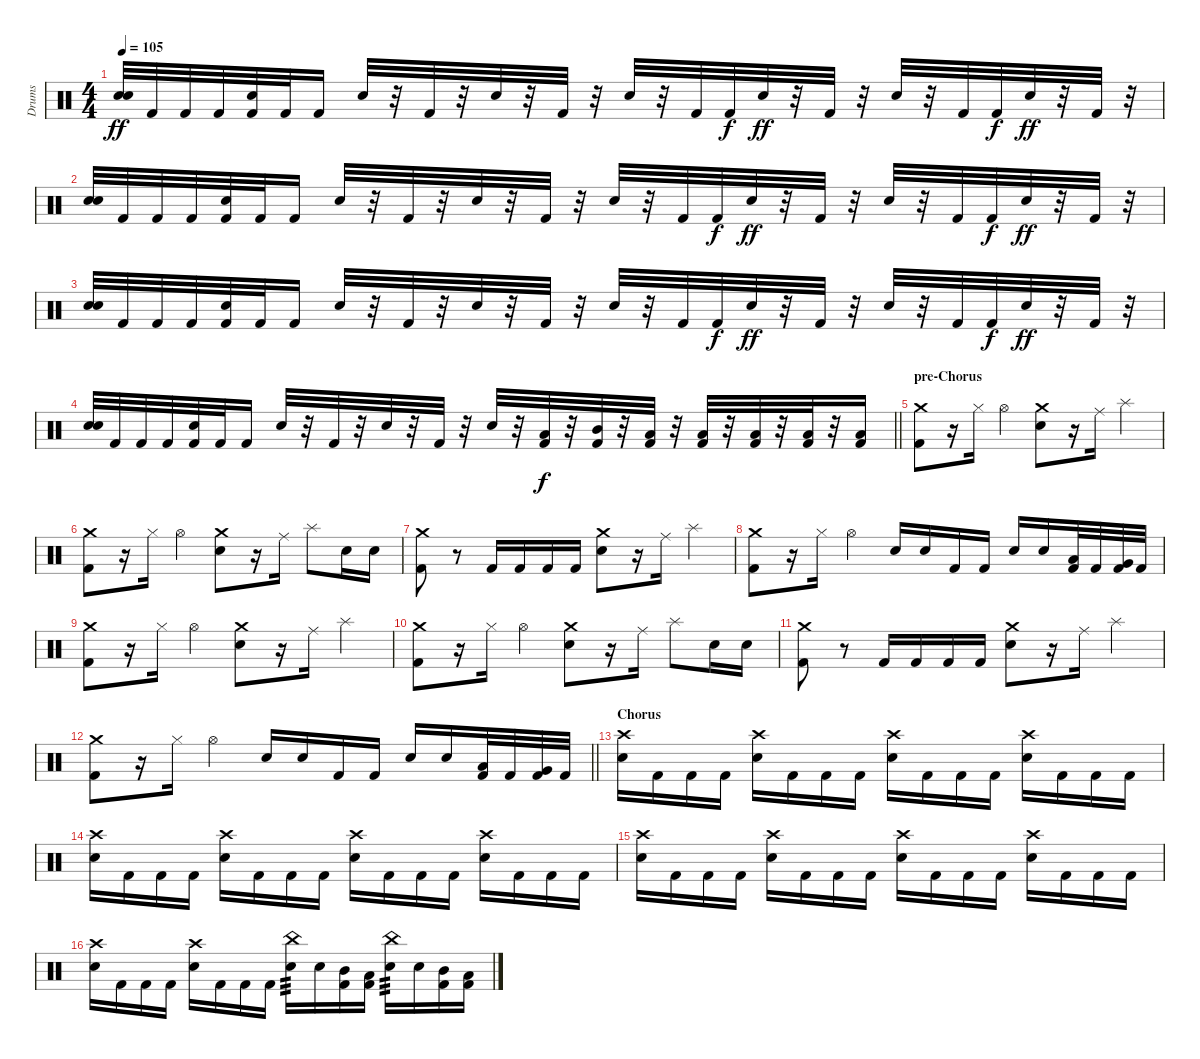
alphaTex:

\track ("Drums" "Drums") {instrument percussion}
\staff {score}
\articulation defaults
\ts (4 4)
\tempo 105
\clef neutral
\ks c
("Snare (hit) 2" "Snare (hit) 2").32{dy ff} "Kick (hit) 2".32 "Kick (hit) 2".32 "Kick (hit) 2".32 ("Snare (hit) 2" "Kick (hit) 2").32 "Kick (hit) 2".32 "Kick (hit) 2".16 "Snare (hit) 2".32 r.32 "Kick (hit) 2".32 r.32 "Snare (hit) 2".32 r.32 "Kick (hit) 2".32 r.32 "Snare (hit) 2".32 r.32 "Kick (hit) 2".32 "Kick (hit) 2".32{dy f} "Snare (hit) 2".32{dy ff} r.32 "Kick (hit) 2".32 r.32 "Snare (hit) 2".32 r.32 "Kick (hit) 2".32 "Kick (hit) 2".32{dy f} "Snare (hit) 2".32{dy ff} r.32 "Kick (hit) 2".32 r.32 |
("Snare (hit) 2" "Snare (hit) 2").32 "Kick (hit) 2".32 "Kick (hit) 2".32 "Kick (hit) 2".32 ("Snare (hit) 2" "Kick (hit) 2").32 "Kick (hit) 2".32 "Kick (hit) 2".16 "Snare (hit) 2".32 r.32 "Kick (hit) 2".32 r.32 "Snare (hit) 2".32 r.32 "Kick (hit) 2".32 r.32 "Snare (hit) 2".32 r.32 "Kick (hit) 2".32 "Kick (hit) 2".32{dy f} "Snare (hit) 2".32{dy ff} r.32 "Kick (hit) 2".32 r.32 "Snare (hit) 2".32 r.32 "Kick (hit) 2".32 "Kick (hit) 2".32{dy f} "Snare (hit) 2".32{dy ff} r.32 "Kick (hit) 2".32 r.32 |
("Snare (hit) 2" "Snare (hit) 2").32 "Kick (hit) 2".32 "Kick (hit) 2".32 "Kick (hit) 2".32 ("Snare (hit) 2" "Kick (hit) 2").32 "Kick (hit) 2".32 "Kick (hit) 2".16 "Snare (hit) 2".32 r.32 "Kick (hit) 2".32 r.32 "Snare (hit) 2".32 r.32 "Kick (hit) 2".32 r.32 "Snare (hit) 2".32 r.32 "Kick (hit) 2".32 "Kick (hit) 2".32{dy f} "Snare (hit) 2".32{dy ff} r.32 "Kick (hit) 2".32 r.32 "Snare (hit) 2".32 r.32 "Kick (hit) 2".32 "Kick (hit) 2".32{dy f} "Snare (hit) 2".32{dy ff} r.32 "Kick (hit) 2".32 r.32 |
\barLineRight lightlight
("Snare (hit) 2" "Snare (hit) 2").32 "Kick (hit) 2".32 "Kick (hit) 2".32 "Kick (hit) 2".32 ("Snare (hit) 2" "Kick (hit) 2").32 "Kick (hit) 2".32 "Kick (hit) 2".16 "Snare (hit) 2".32 r.32 "Kick (hit) 2".32 r.32 "Snare (hit) 2".32 r.32 "Kick (hit) 2".32 r.32 "Snare (hit) 2".32 r.32 ("Low Tom (hit)" "Kick (hit) 2").32{dy f} r.32 ("Mid Tom (hit)" "Kick (hit) 2").32 r.32 ("Low Tom (hit)" "Kick (hit) 2").32 r.32 ("Low Tom (hit)" "Kick (hit) 2").32 r.32 ("Low Tom (hit)" "Kick (hit) 2").32 r.32 ("Low Floor Tom (hit)" "Kick (hit) 2").32 r.32 ("Low Floor Tom (hit)" "Kick (hit) 2").16 |
\section ("" "pre-Chorus")
("Crash medium (hit)" "Kick (hit) 2").8 r.16 "Hi-Hat (closed)".16 "Hi-Hat (open)".4 ("Crash medium (hit)" "Snare (hit) 2").8 r.16 "Ride (middle)".16 "Splash (hit)".4 |
("Crash medium (hit)" "Kick (hit) 2").8 r.16 "Hi-Hat (closed)".16 "Hi-Hat (open)".4 ("Crash medium (hit)" "Snare (hit) 2").8 r.16 "Ride (middle)".16 "Splash (hit)".8 "Snare (hit) 2".16 "Snare (hit) 2".16 |
("Crash medium (hit)" "Kick (hit) 2").8 r.8 "Kick (hit) 2".16 "Kick (hit) 2".16 "Kick (hit) 2".16 "Kick (hit) 2".16 ("Crash medium (hit)" "Snare (hit) 2").8 r.16 "Ride (middle)".16 "Splash (hit)".4 |
("Crash medium (hit)" "Kick (hit) 2").8 r.16 "Hi-Hat (closed)".16 "Hi-Hat (open)".4 "Snare (hit) 2".16 "Snare (hit) 2".16 "Kick (hit) 2".16 "Kick (hit) 2".16 "Snare (hit) 2".16 "Snare (hit) 2".16 ("Low Tom (hit)" "Kick (hit) 2").32 "Kick (hit) 2".32 ("Very Low Tom (hit)" "Kick (hit) 2").32 "Kick (hit) 2".32 |
("Crash medium (hit)" "Kick (hit) 2").8 r.16 "Hi-Hat (closed)".16 "Hi-Hat (open)".4 ("Crash medium (hit)" "Snare (hit) 2").8 r.16 "Ride (middle)".16 "Splash (hit)".4 |
("Crash medium (hit)" "Kick (hit) 2").8 r.16 "Hi-Hat (closed)".16 "Hi-Hat (open)".4 ("Crash medium (hit)" "Snare (hit) 2").8 r.16 "Ride (middle)".16 "Splash (hit)".8 "Snare (hit) 2".16 "Snare (hit) 2".16 |
("Crash medium (hit)" "Kick (hit) 2").8 r.8 "Kick (hit) 2".16 "Kick (hit) 2".16 "Kick (hit) 2".16 "Kick (hit) 2".16 ("Crash medium (hit)" "Snare (hit) 2").8 r.16 "Ride (middle)".16 "Splash (hit)".4 |
\barLineRight lightlight
("Crash medium (hit)" "Kick (hit) 2").8 r.16 "Hi-Hat (closed)".16 "Hi-Hat (open)".4 "Snare (hit) 2".16 "Snare (hit) 2".16 "Kick (hit) 2".16 "Kick (hit) 2".16 "Snare (hit) 2".16 "Snare (hit) 2".16 ("Low Tom (hit)" "Kick (hit) 2").32 "Kick (hit) 2".32 ("Very Low Tom (hit)" "Kick (hit) 2").32 "Kick (hit) 2".32 |
\section ("" "Chorus")
("Crash high (hit)" "Snare (hit) 2").16 "Kick (hit) 2".16 "Kick (hit) 2".16 "Kick (hit) 2".16 ("Crash high (hit)" "Snare (hit) 2").16 "Kick (hit) 2".16 "Kick (hit) 2".16 "Kick (hit) 2".16 ("Crash high (hit)" "Snare (hit) 2").16 "Kick (hit) 2".16 "Kick (hit) 2".16 "Kick (hit) 2".16 ("Crash high (hit)" "Snare (hit) 2").16 "Kick (hit) 2".16 "Kick (hit) 2".16 "Kick (hit) 2".16 |
("Crash high (hit)" "Snare (hit) 2").16 "Kick (hit) 2".16 "Kick (hit) 2".16 "Kick (hit) 2".16 ("Crash high (hit)" "Snare (hit) 2").16 "Kick (hit) 2".16 "Kick (hit) 2".16 "Kick (hit) 2".16 ("Crash high (hit)" "Snare (hit) 2").16 "Kick (hit) 2".16 "Kick (hit) 2".16 "Kick (hit) 2".16 ("Crash high (hit)" "Snare (hit) 2").16 "Kick (hit) 2".16 "Kick (hit) 2".16 "Kick (hit) 2".16 |
("Crash high (hit)" "Snare (hit) 2").16 "Kick (hit) 2".16 "Kick (hit) 2".16 "Kick (hit) 2".16 ("Crash high (hit)" "Snare (hit) 2").16 "Kick (hit) 2".16 "Kick (hit) 2".16 "Kick (hit) 2".16 ("Crash high (hit)" "Snare (hit) 2").16 "Kick (hit) 2".16 "Kick (hit) 2".16 "Kick (hit) 2".16 ("Crash high (hit)" "Snare (hit) 2").16 "Kick (hit) 2".16 "Kick (hit) 2".16 "Kick (hit) 2".16 |
("Crash high (hit)" "Snare (hit) 2").16 "Kick (hit) 2".16 "Kick (hit) 2".16 "Kick (hit) 2".16 ("Crash high (hit)" "Snare (hit) 2").16 "Kick (hit) 2".16 "Kick (hit) 2".16 "Kick (hit) 2".16 ("China (hit)" "Snare (hit) 2").16{tp 3} "Snare (hit) 2".16 ("Mid Tom (hit)" "Kick (hit) 2").16 ("Low Tom (hit)" "Kick (hit) 2").16 ("China (hit)" "Snare (hit) 2").16{tp 3} "Snare (hit) 2".16 ("Mid Tom (hit)" "Kick (hit) 2").16 ("Low Tom (hit)" "Kick (hit) 2").16
